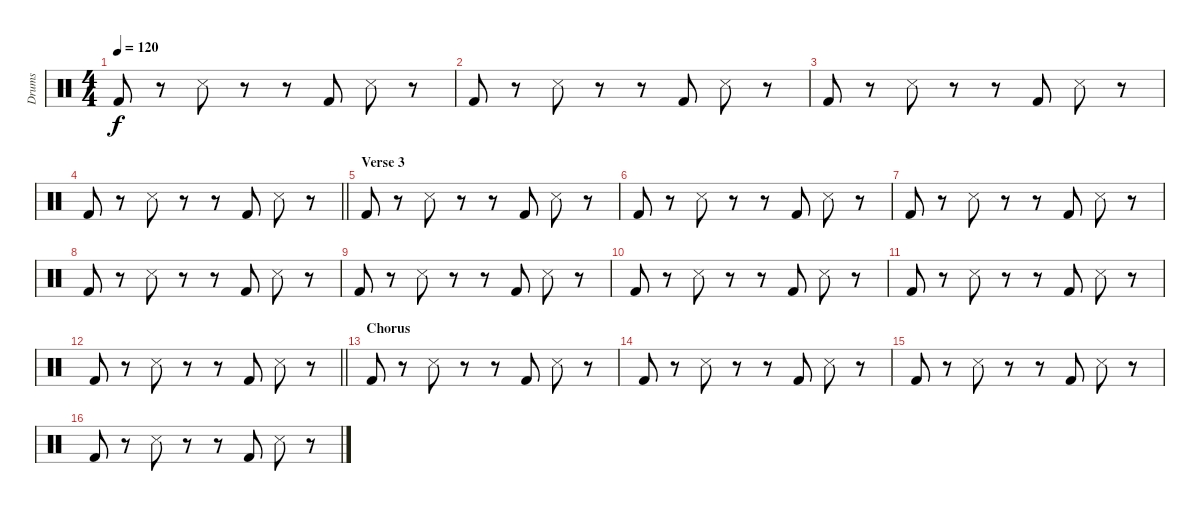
\track ("Drums" "Drums") {instrument percussion}
\staff {score}
\articulation defaults
\ts (4 4)
\tempo 120
\clef neutral
\ks c "Kick (hit) 2".8{dy f}
r.8 "Snare (side stick) 3".8 r.8 r.8 "Kick (hit) 2".8 "Snare (side stick) 3".8 r.8 |
"Kick (hit) 2".8 r.8 "Snare (side stick) 3".8 r.8 r.8 "Kick (hit) 2".8 "Snare (side stick) 3".8 r.8 |
"Kick (hit) 2".8 r.8 "Snare (side stick) 3".8 r.8 r.8 "Kick (hit) 2".8 "Snare (side stick) 3".8 r.8 |
\barLineRight lightlight "Kick (hit) 2".8
r.8 "Snare (side stick) 3".8 r.8 r.8 "Kick (hit) 2".8 "Snare (side stick) 3".8 r.8 |
\section ("" "Verse 3")
"Kick (hit) 2".8 r.8 "Snare (side stick) 3".8 r.8 r.8 "Kick (hit) 2".8 "Snare (side stick) 3".8 r.8 |
"Kick (hit) 2".8 r.8 "Snare (side stick) 3".8 r.8 r.8 "Kick (hit) 2".8 "Snare (side stick) 3".8 r.8 |
"Kick (hit) 2".8 r.8 "Snare (side stick) 3".8 r.8 r.8 "Kick (hit) 2".8 "Snare (side stick) 3".8 r.8 |
"Kick (hit) 2".8 r.8 "Snare (side stick) 3".8 r.8 r.8 "Kick (hit) 2".8 "Snare (side stick) 3".8 r.8 |
"Kick (hit) 2".8 r.8 "Snare (side stick) 3".8 r.8 r.8 "Kick (hit) 2".8 "Snare (side stick) 3".8 r.8 |
"Kick (hit) 2".8 r.8 "Snare (side stick) 3".8 r.8 r.8 "Kick (hit) 2".8 "Snare (side stick) 3".8 r.8 |
"Kick (hit) 2".8 r.8 "Snare (side stick) 3".8 r.8 r.8 "Kick (hit) 2".8 "Snare (side stick) 3".8 r.8 |
\barLineRight lightlight "Kick (hit) 2".8
r.8 "Snare (side stick) 3".8 r.8 r.8 "Kick (hit) 2".8 "Snare (side stick) 3".8 r.8 |
\section ("" "Chorus")
"Kick (hit) 2".8 r.8 "Snare (side stick) 3".8 r.8 r.8 "Kick (hit) 2".8 "Snare (side stick) 3".8 r.8 |
"Kick (hit) 2".8 r.8 "Snare (side stick) 3".8 r.8 r.8 "Kick (hit) 2".8 "Snare (side stick) 3".8 r.8 |
"Kick (hit) 2".8 r.8 "Snare (side stick) 3".8 r.8 r.8 "Kick (hit) 2".8 "Snare (side stick) 3".8 r.8 |
"Kick (hit) 2".8 r.8 "Snare (side stick) 3".8 r.8 r.8 "Kick (hit) 2".8 "Snare (side stick) 3".8 r.8
